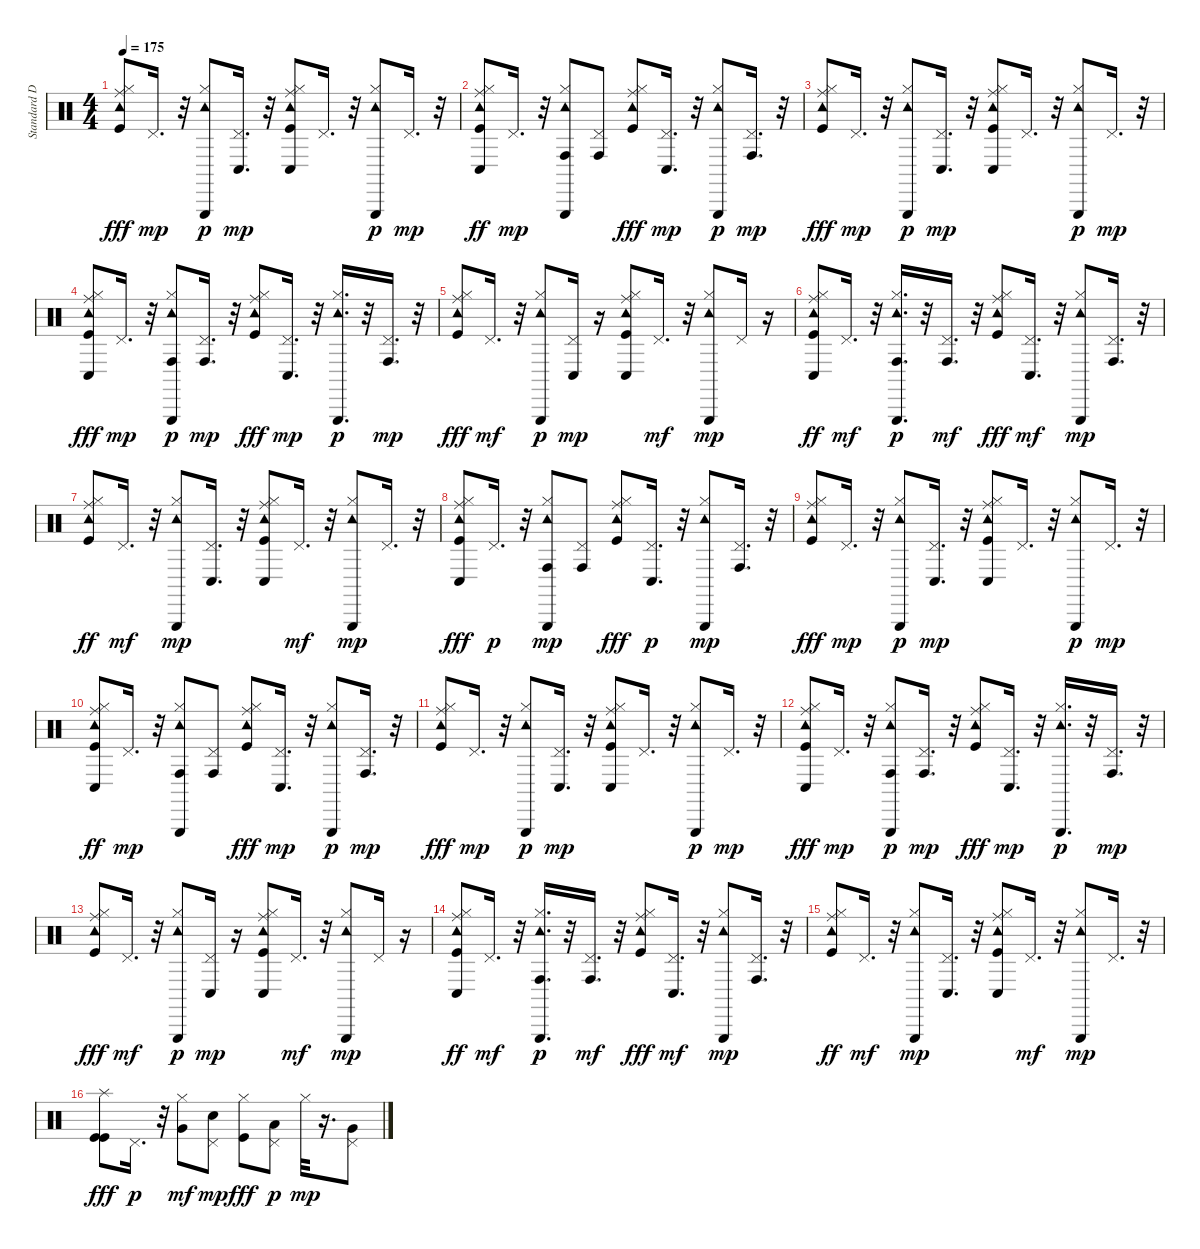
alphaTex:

\track ("Standard Drums" "Standard D") {instrument percussion}
\staff {score}
\articulation defaults
\ts (4 4)
\tempo 175
\clef neutral
\ks c
("Kick (hit)" "Hi-Hat (closed)" "Tambourine (hit)" "Ride (middle)").8{dy fff} "Pedal Hi-Hat (hit)".16{d dy mp} r.32 ("Hi-Hat (closed)" "Triangle (hit)" "Tambourine (hit)").8{dy p} ("Pedal Hi-Hat (hit)" "Conga low (hit)").16{d dy mp} r.32 ("Kick (hit)" "Hi-Hat (closed)" "Tambourine (hit)" "Conga low (hit)" "Ride (middle)").8 "Pedal Hi-Hat (hit)".16{d} r.32 ("Hi-Hat (closed)" "Triangle (hit)" "Tambourine (hit)").8{dy p} "Pedal Hi-Hat (hit)".16{d dy mp} r.32 |
("Kick (hit)" "Hi-Hat (closed)" "Tambourine (hit)" "Conga low (hit)" "Ride (middle)").8{dy ff} "Pedal Hi-Hat (hit)".16{d dy mp} r.32 ("Hi-Hat (closed)" "Triangle (hit)" "Tambourine (hit)" "Conga high (hit)").8 ("Pedal Hi-Hat (hit)" "Conga high (hit)").8 ("Kick (hit)" "Hi-Hat (closed)" "Tambourine (hit)" "Ride (middle)").8{dy fff} ("Pedal Hi-Hat (hit)" "Conga low (hit)").16{d dy mp} r.32 ("Hi-Hat (closed)" "Triangle (hit)" "Tambourine (hit)").8{dy p} ("Pedal Hi-Hat (hit)" "Conga high (hit)").16{d dy mp} r.32 |
("Kick (hit)" "Hi-Hat (closed)" "Tambourine (hit)" "Ride (middle)").8{dy fff} "Pedal Hi-Hat (hit)".16{d dy mp} r.32 ("Hi-Hat (closed)" "Triangle (hit)" "Tambourine (hit)").8{dy p} ("Pedal Hi-Hat (hit)" "Conga low (hit)").16{d dy mp} r.32 ("Kick (hit)" "Hi-Hat (closed)" "Tambourine (hit)" "Conga low (hit)" "Ride (middle)").8 "Pedal Hi-Hat (hit)".16{d} r.32 ("Hi-Hat (closed)" "Triangle (hit)" "Tambourine (hit)").8{dy p} "Pedal Hi-Hat (hit)".16{d dy mp} r.32 |
("Kick (hit)" "Hi-Hat (closed)" "Tambourine (hit)" "Conga low (hit)" "Ride (middle)").8{dy fff} "Pedal Hi-Hat (hit)".16{d dy mp} r.32 ("Hi-Hat (closed)" "Triangle (hit)" "Tambourine (hit)" "Conga high (hit)").8{dy p} ("Pedal Hi-Hat (hit)" "Conga high (hit)").16{d dy mp} r.32 ("Kick (hit)" "Hi-Hat (closed)" "Tambourine (hit)" "Ride (middle)").8{dy fff} ("Pedal Hi-Hat (hit)" "Conga low (hit)").16{d dy mp} r.32 ("Hi-Hat (closed)" "Triangle (hit)" "Tambourine (hit)").16{d dy p} r.32 ("Pedal Hi-Hat (hit)" "Conga high (hit)").16{d dy mp} r.32 |
("Kick (hit)" "Hi-Hat (closed)" "Tambourine (hit)" "Ride (middle)").8{dy fff} "Pedal Hi-Hat (hit)".16{d dy mf} r.32 ("Hi-Hat (closed)" "Triangle (hit)" "Tambourine (hit)").8{dy p} ("Pedal Hi-Hat (hit)" "Conga low (hit)").16{dy mp} r.16 ("Kick (hit)" "Hi-Hat (closed)" "Tambourine (hit)" "Conga low (hit)" "Ride (middle)").8 "Pedal Hi-Hat (hit)".16{d dy mf} r.32 ("Hi-Hat (closed)" "Triangle (hit)" "Tambourine (hit)").8{dy mp} "Pedal Hi-Hat (hit)".16 r.16 |
("Kick (hit)" "Hi-Hat (closed)" "Tambourine (hit)" "Conga low (hit)" "Ride (middle)").8{dy ff} "Pedal Hi-Hat (hit)".16{d dy mf} r.32 ("Hi-Hat (closed)" "Triangle (hit)" "Tambourine (hit)" "Conga high (hit)").16{d dy p} r.32 ("Pedal Hi-Hat (hit)" "Conga high (hit)").16{d dy mf} r.32 ("Kick (hit)" "Hi-Hat (closed)" "Tambourine (hit)" "Ride (middle)").8{dy fff} ("Pedal Hi-Hat (hit)" "Conga low (hit)").16{d dy mf} r.32 ("Hi-Hat (closed)" "Triangle (hit)" "Tambourine (hit)").8{dy mp} ("Pedal Hi-Hat (hit)" "Conga high (hit)").16{d} r.32 |
("Kick (hit)" "Hi-Hat (closed)" "Tambourine (hit)" "Ride (middle)").8{dy ff} "Pedal Hi-Hat (hit)".16{d dy mf} r.32 ("Hi-Hat (closed)" "Triangle (hit)" "Tambourine (hit)").8{dy mp} ("Pedal Hi-Hat (hit)" "Conga low (hit)").16{d} r.32 ("Kick (hit)" "Hi-Hat (closed)" "Tambourine (hit)" "Conga low (hit)" "Ride (middle)").8 "Pedal Hi-Hat (hit)".16{d dy mf} r.32 ("Hi-Hat (closed)" "Triangle (hit)" "Tambourine (hit)").8{dy mp} "Pedal Hi-Hat (hit)".16{d} r.32 |
("Kick (hit)" "Hi-Hat (closed)" "Tambourine (hit)" "Conga low (hit)" "Ride (middle)").8{dy fff} "Pedal Hi-Hat (hit)".16{d dy p} r.32 ("Hi-Hat (closed)" "Triangle (hit)" "Tambourine (hit)" "Conga high (hit)").8{dy mp} ("Pedal Hi-Hat (hit)" "Conga high (hit)").8 ("Kick (hit)" "Hi-Hat (closed)" "Tambourine (hit)" "Ride (middle)").8{dy fff} ("Pedal Hi-Hat (hit)" "Conga low (hit)").16{d dy p} r.32 ("Hi-Hat (closed)" "Triangle (hit)" "Tambourine (hit)").8{dy mp} ("Pedal Hi-Hat (hit)" "Conga high (hit)").16{d} r.32 |
("Kick (hit)" "Hi-Hat (closed)" "Tambourine (hit)" "Ride (middle)").8{dy fff} "Pedal Hi-Hat (hit)".16{d dy mp} r.32 ("Hi-Hat (closed)" "Triangle (hit)" "Tambourine (hit)").8{dy p} ("Pedal Hi-Hat (hit)" "Conga low (hit)").16{d dy mp} r.32 ("Kick (hit)" "Hi-Hat (closed)" "Tambourine (hit)" "Conga low (hit)" "Ride (middle)").8 "Pedal Hi-Hat (hit)".16{d} r.32 ("Hi-Hat (closed)" "Triangle (hit)" "Tambourine (hit)").8{dy p} "Pedal Hi-Hat (hit)".16{d dy mp} r.32 |
("Kick (hit)" "Hi-Hat (closed)" "Tambourine (hit)" "Conga low (hit)" "Ride (middle)").8{dy ff} "Pedal Hi-Hat (hit)".16{d dy mp} r.32 ("Hi-Hat (closed)" "Triangle (hit)" "Tambourine (hit)" "Conga high (hit)").8 ("Pedal Hi-Hat (hit)" "Conga high (hit)").8 ("Kick (hit)" "Hi-Hat (closed)" "Tambourine (hit)" "Ride (middle)").8{dy fff} ("Pedal Hi-Hat (hit)" "Conga low (hit)").16{d dy mp} r.32 ("Hi-Hat (closed)" "Triangle (hit)" "Tambourine (hit)").8{dy p} ("Pedal Hi-Hat (hit)" "Conga high (hit)").16{d dy mp} r.32 |
("Kick (hit)" "Hi-Hat (closed)" "Tambourine (hit)" "Ride (middle)").8{dy fff} "Pedal Hi-Hat (hit)".16{d dy mp} r.32 ("Hi-Hat (closed)" "Triangle (hit)" "Tambourine (hit)").8{dy p} ("Pedal Hi-Hat (hit)" "Conga low (hit)").16{d dy mp} r.32 ("Kick (hit)" "Hi-Hat (closed)" "Tambourine (hit)" "Conga low (hit)" "Ride (middle)").8 "Pedal Hi-Hat (hit)".16{d} r.32 ("Hi-Hat (closed)" "Triangle (hit)" "Tambourine (hit)").8{dy p} "Pedal Hi-Hat (hit)".16{d dy mp} r.32 |
("Kick (hit)" "Hi-Hat (closed)" "Tambourine (hit)" "Conga low (hit)" "Ride (middle)").8{dy fff} "Pedal Hi-Hat (hit)".16{d dy mp} r.32 ("Hi-Hat (closed)" "Triangle (hit)" "Tambourine (hit)" "Conga high (hit)").8{dy p} ("Pedal Hi-Hat (hit)" "Conga high (hit)").16{d dy mp} r.32 ("Kick (hit)" "Hi-Hat (closed)" "Tambourine (hit)" "Ride (middle)").8{dy fff} ("Pedal Hi-Hat (hit)" "Conga low (hit)").16{d dy mp} r.32 ("Hi-Hat (closed)" "Triangle (hit)" "Tambourine (hit)").16{d dy p} r.32 ("Pedal Hi-Hat (hit)" "Conga high (hit)").16{d dy mp} r.32 |
("Kick (hit)" "Hi-Hat (closed)" "Tambourine (hit)" "Ride (middle)").8{dy fff} "Pedal Hi-Hat (hit)".16{d dy mf} r.32 ("Hi-Hat (closed)" "Triangle (hit)" "Tambourine (hit)").8{dy p} ("Pedal Hi-Hat (hit)" "Conga low (hit)").16{dy mp} r.16 ("Kick (hit)" "Hi-Hat (closed)" "Tambourine (hit)" "Conga low (hit)" "Ride (middle)").8 "Pedal Hi-Hat (hit)".16{d dy mf} r.32 ("Hi-Hat (closed)" "Triangle (hit)" "Tambourine (hit)").8{dy mp} "Pedal Hi-Hat (hit)".16 r.16 |
("Kick (hit)" "Hi-Hat (closed)" "Tambourine (hit)" "Conga low (hit)" "Ride (middle)").8{dy ff} "Pedal Hi-Hat (hit)".16{d dy mf} r.32 ("Hi-Hat (closed)" "Triangle (hit)" "Tambourine (hit)" "Conga high (hit)").16{d dy p} r.32 ("Pedal Hi-Hat (hit)" "Conga high (hit)").16{d dy mf} r.32 ("Kick (hit)" "Hi-Hat (closed)" "Tambourine (hit)" "Ride (middle)").8{dy fff} ("Pedal Hi-Hat (hit)" "Conga low (hit)").16{d dy mf} r.32 ("Hi-Hat (closed)" "Triangle (hit)" "Tambourine (hit)").8{dy mp} ("Pedal Hi-Hat (hit)" "Conga high (hit)").16{d} r.32 |
("Kick (hit)" "Hi-Hat (closed)" "Tambourine (hit)" "Ride (middle)").8{dy ff} "Pedal Hi-Hat (hit)".16{d dy mf} r.32 ("Hi-Hat (closed)" "Triangle (hit)" "Tambourine (hit)").8{dy mp} ("Pedal Hi-Hat (hit)" "Conga low (hit)").16{d} r.32 ("Kick (hit)" "Hi-Hat (closed)" "Tambourine (hit)" "Conga low (hit)" "Ride (middle)").8 "Pedal Hi-Hat (hit)".16{d dy mf} r.32 ("Hi-Hat (closed)" "Triangle (hit)" "Tambourine (hit)").8{dy mp} "Pedal Hi-Hat (hit)".16{d} r.32 |
("Kick (hit)" "Kick (hit)" "Splash (hit)").8{dy fff} "Pedal Hi-Hat (hit)".16{d dy p} r.32 ("Very Low Tom (hit)" "Hi-Hat (closed)").8{dy mf} ("Snare (hit) 2" "Pedal Hi-Hat (hit)").8{dy mp} ("Kick (hit)" "Hi-Hat (closed)").8{dy fff} ("Low Tom (hit)" "Pedal Hi-Hat (hit)").8{dy p} "Hi-Hat (closed)".32{dy mp} r.16{d} ("Very Low Tom (hit)" "Pedal Hi-Hat (hit)").8
